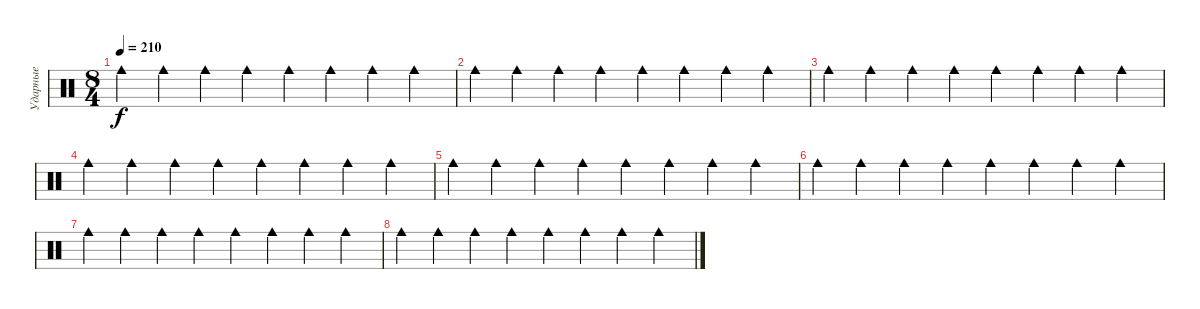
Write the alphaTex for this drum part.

\track ("Ударные" "Ударные") {mute instrument percussion}
\staff {score}
\articulation defaults
\ts (8 4)
\tempo 210
\clef neutral
\ks c "Cowbell medium (hit)".4{dy f} "Cowbell medium (hit)".4 "Cowbell medium (hit)".4 "Cowbell medium (hit)".4 "Cowbell medium (hit)".4 "Cowbell medium (hit)".4 "Cowbell medium (hit)".4 "Cowbell medium (hit)".4
|
"Cowbell medium (hit)".4 "Cowbell medium (hit)".4 "Cowbell medium (hit)".4 "Cowbell medium (hit)".4 "Cowbell medium (hit)".4 "Cowbell medium (hit)".4 "Cowbell medium (hit)".4 "Cowbell medium (hit)".4 |
"Cowbell medium (hit)".4 "Cowbell medium (hit)".4 "Cowbell medium (hit)".4 "Cowbell medium (hit)".4 "Cowbell medium (hit)".4 "Cowbell medium (hit)".4 "Cowbell medium (hit)".4 "Cowbell medium (hit)".4 |
"Cowbell medium (hit)".4 "Cowbell medium (hit)".4 "Cowbell medium (hit)".4 "Cowbell medium (hit)".4 "Cowbell medium (hit)".4 "Cowbell medium (hit)".4 "Cowbell medium (hit)".4 "Cowbell medium (hit)".4 |
"Cowbell medium (hit)".4 "Cowbell medium (hit)".4 "Cowbell medium (hit)".4 "Cowbell medium (hit)".4 "Cowbell medium (hit)".4 "Cowbell medium (hit)".4 "Cowbell medium (hit)".4 "Cowbell medium (hit)".4 |
"Cowbell medium (hit)".4 "Cowbell medium (hit)".4 "Cowbell medium (hit)".4 "Cowbell medium (hit)".4 "Cowbell medium (hit)".4 "Cowbell medium (hit)".4 "Cowbell medium (hit)".4 "Cowbell medium (hit)".4 |
"Cowbell medium (hit)".4 "Cowbell medium (hit)".4 "Cowbell medium (hit)".4 "Cowbell medium (hit)".4 "Cowbell medium (hit)".4 "Cowbell medium (hit)".4 "Cowbell medium (hit)".4 "Cowbell medium (hit)".4 |
"Cowbell medium (hit)".4 "Cowbell medium (hit)".4 "Cowbell medium (hit)".4 "Cowbell medium (hit)".4 "Cowbell medium (hit)".4 "Cowbell medium (hit)".4 "Cowbell medium (hit)".4 "Cowbell medium (hit)".4
